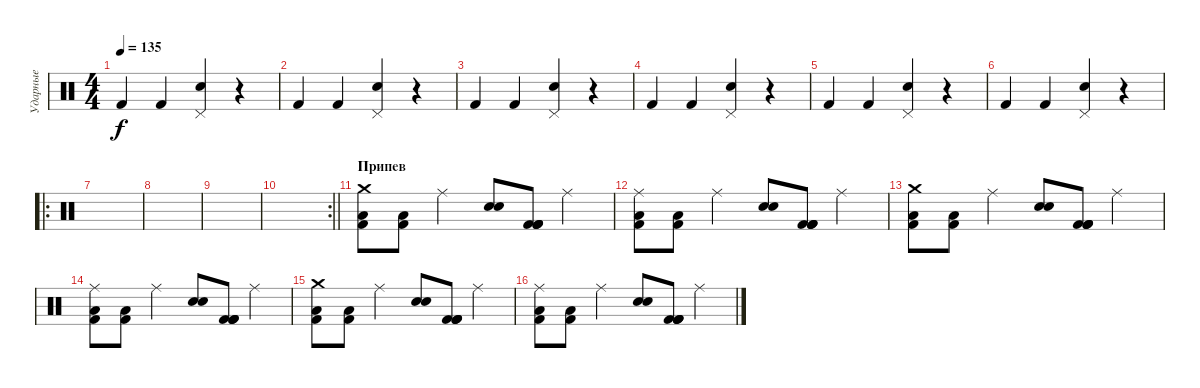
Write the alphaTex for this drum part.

\track ("Ударные" "Ударные") {instrument percussion}
\staff {score}
\articulation defaults
\ts (4 4)
\tempo 135
\clef neutral
\ks c "Kick (hit) 2".4{dy f} "Kick (hit) 2".4
("Pedal Hi-Hat (hit)" "Snare (hit) 2").4 r.4 |
"Kick (hit) 2".4 "Kick (hit) 2".4 ("Pedal Hi-Hat (hit)" "Snare (hit) 2").4 r.4 |
"Kick (hit) 2".4 "Kick (hit) 2".4 ("Pedal Hi-Hat (hit)" "Snare (hit) 2").4 r.4 |
"Kick (hit) 2".4 "Kick (hit) 2".4 ("Pedal Hi-Hat (hit)" "Snare (hit) 2").4 r.4 |
"Kick (hit) 2".4 "Kick (hit) 2".4 ("Pedal Hi-Hat (hit)" "Snare (hit) 2").4 r.4 |
"Kick (hit) 2".4 "Kick (hit) 2".4 ("Pedal Hi-Hat (hit)" "Snare (hit) 2").4 r.4 |
\ro
|
|
|
\rc 2
\barLineRight lightlight
|
\section ("" "Припев")
("Kick (hit) 2" "Low Floor Tom (hit)" "Crash medium (hit)").8{volume 13} ("Kick (hit) 2" "Low Floor Tom (hit)").8 "Ride (middle)".4 ("Electric Snare (hit)" "Snare (hit) 2").8 ("Kick (hit) 2" "Kick (hit) 2" "Kick (hit) 2" "Kick (hit) 2").8 "Ride (middle)".4 |
("Kick (hit) 2" "Low Floor Tom (hit)" "Ride (middle)").8 ("Kick (hit) 2" "Low Floor Tom (hit)").8 "Ride (middle)".4 ("Electric Snare (hit)" "Snare (hit) 2").8 ("Kick (hit) 2" "Kick (hit) 2" "Kick (hit) 2" "Kick (hit) 2").8 "Ride (middle)".4 |
("Kick (hit) 2" "Low Floor Tom (hit)" "Crash medium (hit)").8 ("Kick (hit) 2" "Low Floor Tom (hit)").8 "Ride (middle)".4 ("Electric Snare (hit)" "Snare (hit) 2").8 ("Kick (hit) 2" "Kick (hit) 2" "Kick (hit) 2" "Kick (hit) 2").8 "Ride (middle)".4 |
("Kick (hit) 2" "Low Floor Tom (hit)" "Ride (middle)").8 ("Kick (hit) 2" "Low Floor Tom (hit)").8 "Ride (middle)".4 ("Electric Snare (hit)" "Snare (hit) 2").8 ("Kick (hit) 2" "Kick (hit) 2" "Kick (hit) 2" "Kick (hit) 2").8 "Ride (middle)".4 |
("Kick (hit) 2" "Low Floor Tom (hit)" "Crash medium (hit)").8 ("Kick (hit) 2" "Low Floor Tom (hit)").8 "Ride (middle)".4 ("Electric Snare (hit)" "Snare (hit) 2").8 ("Kick (hit) 2" "Kick (hit) 2" "Kick (hit) 2" "Kick (hit) 2").8 "Ride (middle)".4 |
("Kick (hit) 2" "Low Floor Tom (hit)" "Ride (middle)").8 ("Kick (hit) 2" "Low Floor Tom (hit)").8 "Ride (middle)".4 ("Electric Snare (hit)" "Snare (hit) 2").8 ("Kick (hit) 2" "Kick (hit) 2" "Kick (hit) 2" "Kick (hit) 2").8 "Ride (middle)".4
